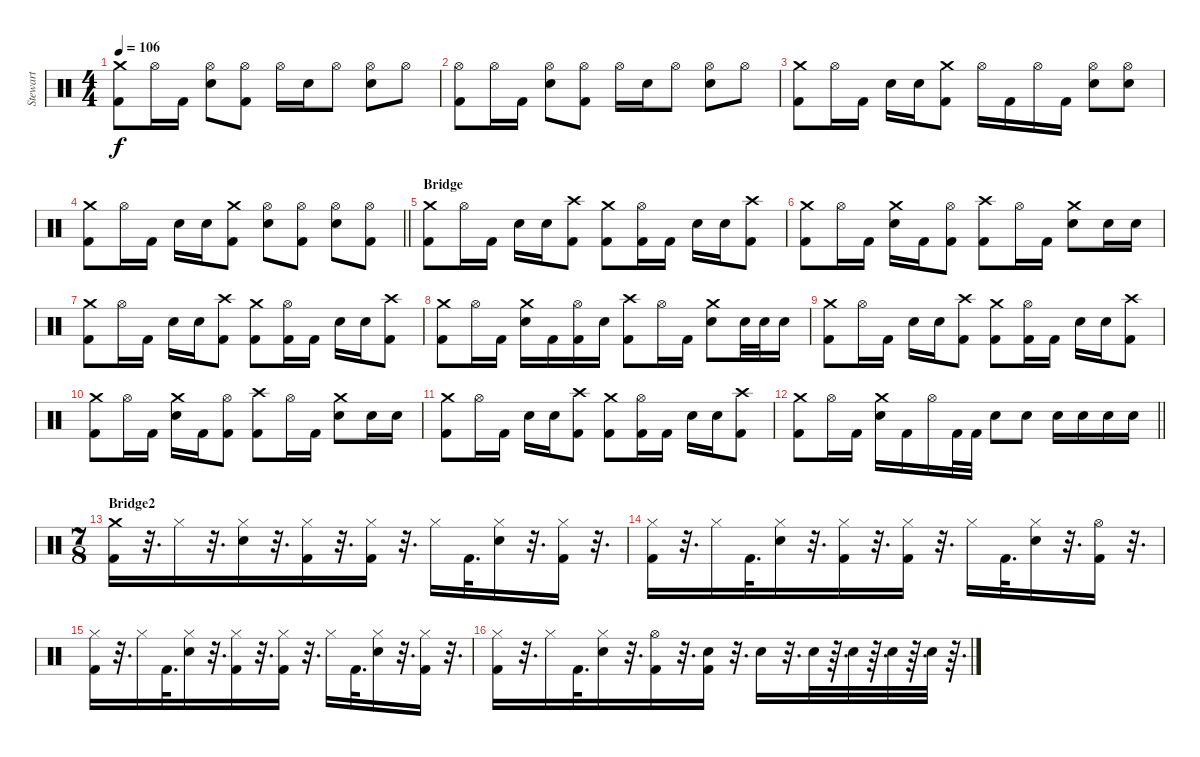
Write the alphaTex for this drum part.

\track ("Stewart" "Stewart") {instrument percussion}
\staff {score}
\articulation defaults
\ts (4 4)
\tempo 106
\clef neutral
\ks c
("Crash medium (hit)" "Kick (hit) 2").8{dy f} "Hi-Hat (open)".16 "Kick (hit) 2".16 ("Hi-Hat (open)" "Electric Snare (hit)").8 ("Hi-Hat (open)" "Kick (hit) 2").8 "Hi-Hat (open)".16 "Electric Snare (hit)".16 "Hi-Hat (open)".8 ("Hi-Hat (open)" "Electric Snare (hit)").8 "Hi-Hat (open)".8 |
("Hi-Hat (open)" "Kick (hit) 2").8 "Hi-Hat (open)".16 "Kick (hit) 2".16 ("Hi-Hat (open)" "Electric Snare (hit)").8 ("Hi-Hat (open)" "Kick (hit) 2").8 "Hi-Hat (open)".16 "Electric Snare (hit)".16 "Hi-Hat (open)".8 ("Hi-Hat (open)" "Electric Snare (hit)").8 "Hi-Hat (open)".8 |
("Crash medium (hit)" "Kick (hit) 2").8 "Hi-Hat (open)".16 "Kick (hit) 2".16 "Electric Snare (hit)".16 "Electric Snare (hit)".16 ("Crash medium (hit)" "Kick (hit) 2").8 "Hi-Hat (open)".16 "Kick (hit) 2".16 "Hi-Hat (open)".16 "Kick (hit) 2".16 ("Hi-Hat (open)" "Electric Snare (hit)").8 ("Hi-Hat (open)" "Electric Snare (hit)").8 |
\barLineRight lightlight
("Crash medium (hit)" "Kick (hit) 2").8 "Hi-Hat (open)".16 "Kick (hit) 2".16 "Electric Snare (hit)".16 "Electric Snare (hit)".16 ("Crash medium (hit)" "Kick (hit) 2").8 ("Hi-Hat (open)" "Electric Snare (hit)").8 ("Hi-Hat (open)" "Kick (hit) 2").8 ("Hi-Hat (open)" "Electric Snare (hit)").8 ("Hi-Hat (open)" "Kick (hit) 2").8 |
\section ("" "Bridge")
("Crash medium (hit)" "Kick (hit) 2").8 "Hi-Hat (open)".16 "Kick (hit) 2".16 "Electric Snare (hit)".16 "Electric Snare (hit)".16 ("Crash high (hit)" "Kick (hit) 2").8 ("Crash medium (hit)" "Kick (hit) 2").8 ("Hi-Hat (open)" "Kick (hit) 2").16 "Kick (hit) 2".16 "Electric Snare (hit)".16 "Electric Snare (hit)".16 ("Crash high (hit)" "Kick (hit) 2").8 |
("Crash medium (hit)" "Kick (hit) 2").8 "Hi-Hat (open)".16 "Kick (hit) 2".16 ("Crash medium (hit)" "Electric Snare (hit)").16 "Kick (hit) 2".16 ("Hi-Hat (open)" "Kick (hit) 2").8 ("Crash high (hit)" "Kick (hit) 2").8 "Hi-Hat (open)".16 "Kick (hit) 2".16 ("Crash medium (hit)" "Electric Snare (hit)").8 "Electric Snare (hit)".16 "Electric Snare (hit)".16 |
("Crash medium (hit)" "Kick (hit) 2").8 "Hi-Hat (open)".16 "Kick (hit) 2".16 "Electric Snare (hit)".16 "Electric Snare (hit)".16 ("Crash high (hit)" "Kick (hit) 2").8 ("Crash medium (hit)" "Kick (hit) 2").8 ("Hi-Hat (open)" "Kick (hit) 2").16 "Kick (hit) 2".16 "Electric Snare (hit)".16 "Electric Snare (hit)".16 ("Crash high (hit)" "Kick (hit) 2").8 |
("Crash medium (hit)" "Kick (hit) 2").8 "Hi-Hat (open)".16 "Kick (hit) 2".16 ("Crash medium (hit)" "Electric Snare (hit)").16 "Kick (hit) 2".16 ("Hi-Hat (open)" "Kick (hit) 2").16 "Electric Snare (hit)".16 ("Crash high (hit)" "Kick (hit) 2").8 "Hi-Hat (open)".16 "Kick (hit) 2".16 ("Crash medium (hit)" "Electric Snare (hit)").8 "Electric Snare (hit)".32 "Electric Snare (hit)".32 "Electric Snare (hit)".16 |
("Crash medium (hit)" "Kick (hit) 2").8 "Hi-Hat (open)".16 "Kick (hit) 2".16 "Electric Snare (hit)".16 "Electric Snare (hit)".16 ("Crash high (hit)" "Kick (hit) 2").8 ("Crash medium (hit)" "Kick (hit) 2").8 ("Hi-Hat (open)" "Kick (hit) 2").16 "Kick (hit) 2".16 "Electric Snare (hit)".16 "Electric Snare (hit)".16 ("Crash high (hit)" "Kick (hit) 2").8 |
("Crash medium (hit)" "Kick (hit) 2").8 "Hi-Hat (open)".16 "Kick (hit) 2".16 ("Crash medium (hit)" "Electric Snare (hit)").16 "Kick (hit) 2".16 ("Hi-Hat (open)" "Kick (hit) 2").8 ("Crash high (hit)" "Kick (hit) 2").8 "Hi-Hat (open)".16 "Kick (hit) 2".16 ("Crash medium (hit)" "Electric Snare (hit)").8 "Electric Snare (hit)".16 "Electric Snare (hit)".16 |
("Crash medium (hit)" "Kick (hit) 2").8 "Hi-Hat (open)".16 "Kick (hit) 2".16 "Electric Snare (hit)".16 "Electric Snare (hit)".16 ("Crash high (hit)" "Kick (hit) 2").8 ("Crash medium (hit)" "Kick (hit) 2").8 ("Hi-Hat (open)" "Kick (hit) 2").16 "Kick (hit) 2".16 "Electric Snare (hit)".16 "Electric Snare (hit)".16 ("Crash high (hit)" "Kick (hit) 2").8 |
\barLineRight lightlight
("Crash medium (hit)" "Kick (hit) 2").8 "Hi-Hat (open)".16 "Kick (hit) 2".16 ("Crash medium (hit)" "Electric Snare (hit)").16 "Kick (hit) 2".16 "Hi-Hat (open)".16 "Kick (hit) 2".32 "Kick (hit) 2".32 "Electric Snare (hit)".8 "Electric Snare (hit)".8 "Electric Snare (hit)".16 "Electric Snare (hit)".16 "Electric Snare (hit)".16 "Electric Snare (hit)".16 |
\ts (7 8)
\section ("" "Bridge2")
("Crash medium (hit)" "Kick (hit) 2").16 r.32{d} "Hi-Hat (closed)".16 r.32{d} ("Hi-Hat (closed)" "Electric Snare (hit)").16 r.32{d} ("Hi-Hat (closed)" "Kick (hit) 2").16 r.32{d} ("Hi-Hat (closed)" "Kick (hit) 2").16 r.32{d} "Hi-Hat (closed)".16 "Kick (hit) 2".32{d} ("Hi-Hat (closed)" "Electric Snare (hit)").16 r.32{d} ("Hi-Hat (closed)" "Kick (hit) 2").16 r.32{d} |
("Hi-Hat (closed)" "Kick (hit) 2").16 r.32{d} "Hi-Hat (closed)".16 "Kick (hit) 2".32{d} ("Hi-Hat (closed)" "Electric Snare (hit)").16 r.32{d} ("Hi-Hat (closed)" "Kick (hit) 2").16 r.32{d} ("Hi-Hat (closed)" "Kick (hit) 2").16 r.32{d} "Hi-Hat (closed)".16 "Kick (hit) 2".32{d} ("Hi-Hat (closed)" "Electric Snare (hit)").16 r.32{d} ("Hi-Hat (open)" "Kick (hit) 2").16 r.32{d} |
("Hi-Hat (closed)" "Kick (hit) 2").16 r.32{d} "Hi-Hat (closed)".16 "Kick (hit) 2".32{d} ("Hi-Hat (closed)" "Electric Snare (hit)").16 r.32{d} ("Hi-Hat (closed)" "Kick (hit) 2").16 r.32{d} ("Hi-Hat (closed)" "Kick (hit) 2").16 r.32{d} "Hi-Hat (closed)".16 "Kick (hit) 2".32{d} ("Hi-Hat (closed)" "Electric Snare (hit)").16 r.32{d} ("Hi-Hat (closed)" "Kick (hit) 2").16 r.32{d} |
("Hi-Hat (closed)" "Kick (hit) 2").16 r.32{d} "Hi-Hat (closed)".16 "Kick (hit) 2".32{d} ("Hi-Hat (closed)" "Electric Snare (hit)").16 r.32{d} ("Hi-Hat (open)" "Kick (hit) 2").16 r.32{d} ("Electric Snare (hit)" "Kick (hit) 2").16 r.32{d} "Electric Snare (hit)".16 r.32{d} "Electric Snare (hit)".32 r.64{d} "Electric Snare (hit)".32 r.64{d} "Electric Snare (hit)".32 r.64{d} "Electric Snare (hit)".32 r.64{d}
